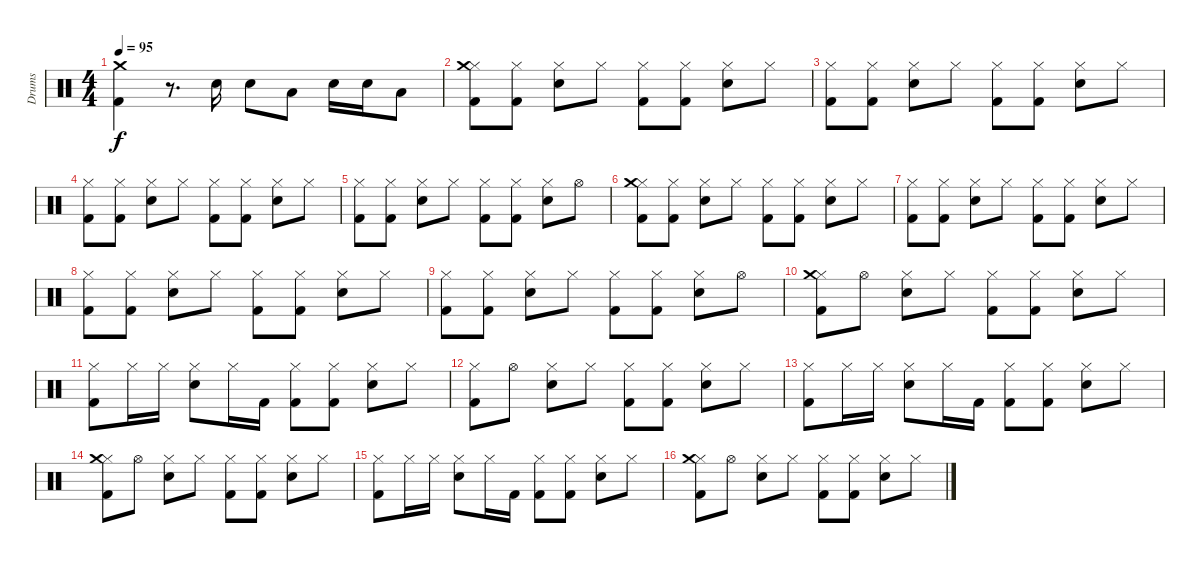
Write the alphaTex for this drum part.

\track ("Drums" "Drums") {instrument percussion}
\staff {score}
\articulation defaults
\ts (4 4)
\tempo 95
\clef neutral
\ks c
("Crash medium (hit)" "Kick (hit) 2").4{dy f} r.8{d} "Snare (hit) 2".16 "Snare (hit) 2".8 "Low Tom (hit)".8 "Snare (hit) 2".16 "Snare (hit) 2".16 "Low Tom (hit)".8 |
("Hi-Hat (closed)" "Crash medium (hit)" "Kick (hit) 2").8 ("Hi-Hat (closed)" "Kick (hit) 2").8 ("Hi-Hat (closed)" "Snare (hit) 2").8 "Hi-Hat (closed)".8 ("Hi-Hat (closed)" "Kick (hit) 2").8 ("Hi-Hat (closed)" "Kick (hit) 2").8 ("Hi-Hat (closed)" "Snare (hit) 2").8 "Hi-Hat (closed)".8 |
("Hi-Hat (closed)" "Kick (hit) 2").8 ("Hi-Hat (closed)" "Kick (hit) 2").8 ("Hi-Hat (closed)" "Snare (hit) 2").8 "Hi-Hat (closed)".8 ("Hi-Hat (closed)" "Kick (hit) 2").8 ("Hi-Hat (closed)" "Kick (hit) 2").8 ("Hi-Hat (closed)" "Snare (hit) 2").8 "Hi-Hat (closed)".8 |
("Hi-Hat (closed)" "Kick (hit) 2").8 ("Hi-Hat (closed)" "Kick (hit) 2").8 ("Hi-Hat (closed)" "Snare (hit) 2").8 "Hi-Hat (closed)".8 ("Hi-Hat (closed)" "Kick (hit) 2").8 ("Hi-Hat (closed)" "Kick (hit) 2").8 ("Hi-Hat (closed)" "Snare (hit) 2").8 "Hi-Hat (closed)".8 |
("Hi-Hat (closed)" "Kick (hit) 2").8 ("Hi-Hat (closed)" "Kick (hit) 2").8 ("Hi-Hat (closed)" "Snare (hit) 2").8 "Hi-Hat (closed)".8 ("Hi-Hat (closed)" "Kick (hit) 2").8 ("Hi-Hat (closed)" "Kick (hit) 2").8 ("Hi-Hat (closed)" "Snare (hit) 2").8 "Hi-Hat (open)".8 |
("Hi-Hat (closed)" "Crash medium (hit)" "Kick (hit) 2").8 ("Hi-Hat (closed)" "Kick (hit) 2").8 ("Hi-Hat (closed)" "Snare (hit) 2").8 "Hi-Hat (closed)".8 ("Hi-Hat (closed)" "Kick (hit) 2").8 ("Hi-Hat (closed)" "Kick (hit) 2").8 ("Hi-Hat (closed)" "Snare (hit) 2").8 "Hi-Hat (closed)".8 |
("Hi-Hat (closed)" "Kick (hit) 2").8 ("Hi-Hat (closed)" "Kick (hit) 2").8 ("Hi-Hat (closed)" "Snare (hit) 2").8 "Hi-Hat (closed)".8 ("Hi-Hat (closed)" "Kick (hit) 2").8 ("Hi-Hat (closed)" "Kick (hit) 2").8 ("Hi-Hat (closed)" "Snare (hit) 2").8 "Hi-Hat (closed)".8 |
("Hi-Hat (closed)" "Kick (hit) 2").8 ("Hi-Hat (closed)" "Kick (hit) 2").8 ("Hi-Hat (closed)" "Snare (hit) 2").8 "Hi-Hat (closed)".8 ("Hi-Hat (closed)" "Kick (hit) 2").8 ("Hi-Hat (closed)" "Kick (hit) 2").8 ("Hi-Hat (closed)" "Snare (hit) 2").8 "Hi-Hat (closed)".8 |
("Hi-Hat (closed)" "Kick (hit) 2").8 ("Hi-Hat (closed)" "Kick (hit) 2").8 ("Hi-Hat (closed)" "Snare (hit) 2").8 "Hi-Hat (closed)".8 ("Hi-Hat (closed)" "Kick (hit) 2").8 ("Hi-Hat (closed)" "Kick (hit) 2").8 ("Hi-Hat (closed)" "Snare (hit) 2").8 "Hi-Hat (open)".8 |
("Hi-Hat (closed)" "Crash medium (hit)" "Kick (hit) 2").8 "Hi-Hat (open)".8 ("Hi-Hat (closed)" "Snare (hit) 2").8 "Hi-Hat (closed)".8 ("Hi-Hat (closed)" "Kick (hit) 2").8 ("Hi-Hat (closed)" "Kick (hit) 2").8 ("Hi-Hat (closed)" "Snare (hit) 2").8 "Hi-Hat (closed)".8 |
("Hi-Hat (closed)" "Kick (hit) 2").8 "Hi-Hat (closed)".16 "Hi-Hat (closed)".16 ("Hi-Hat (closed)" "Snare (hit) 2").8 "Hi-Hat (closed)".16 "Kick (hit) 2".16 ("Hi-Hat (closed)" "Kick (hit) 2").8 ("Hi-Hat (closed)" "Kick (hit) 2").8 ("Hi-Hat (closed)" "Snare (hit) 2").8 "Hi-Hat (closed)".8 |
("Hi-Hat (closed)" "Kick (hit) 2").8 "Hi-Hat (open)".8 ("Hi-Hat (closed)" "Snare (hit) 2").8 "Hi-Hat (closed)".8 ("Hi-Hat (closed)" "Kick (hit) 2").8 ("Hi-Hat (closed)" "Kick (hit) 2").8 ("Hi-Hat (closed)" "Snare (hit) 2").8 "Hi-Hat (closed)".8 |
("Hi-Hat (closed)" "Kick (hit) 2").8 "Hi-Hat (closed)".16 "Hi-Hat (closed)".16 ("Hi-Hat (closed)" "Snare (hit) 2").8 "Hi-Hat (closed)".16 "Kick (hit) 2".16 ("Hi-Hat (closed)" "Kick (hit) 2").8 ("Hi-Hat (closed)" "Kick (hit) 2").8 ("Hi-Hat (closed)" "Snare (hit) 2").8 "Hi-Hat (closed)".8 |
("Hi-Hat (closed)" "Crash medium (hit)" "Kick (hit) 2").8 "Hi-Hat (open)".8 ("Hi-Hat (closed)" "Snare (hit) 2").8 "Hi-Hat (closed)".8 ("Hi-Hat (closed)" "Kick (hit) 2").8 ("Hi-Hat (closed)" "Kick (hit) 2").8 ("Hi-Hat (closed)" "Snare (hit) 2").8 "Hi-Hat (closed)".8 |
("Hi-Hat (closed)" "Kick (hit) 2").8 "Hi-Hat (closed)".16 "Hi-Hat (closed)".16 ("Hi-Hat (closed)" "Snare (hit) 2").8 "Hi-Hat (closed)".16 "Kick (hit) 2".16 ("Hi-Hat (closed)" "Kick (hit) 2").8 ("Hi-Hat (closed)" "Kick (hit) 2").8 ("Hi-Hat (closed)" "Snare (hit) 2").8 "Hi-Hat (closed)".8 |
("Hi-Hat (closed)" "Crash medium (hit)" "Kick (hit) 2").8 "Hi-Hat (open)".8 ("Hi-Hat (closed)" "Snare (hit) 2").8 "Hi-Hat (closed)".8 ("Hi-Hat (closed)" "Kick (hit) 2").8 ("Hi-Hat (closed)" "Kick (hit) 2").8 ("Hi-Hat (closed)" "Snare (hit) 2").8 "Hi-Hat (closed)".8
